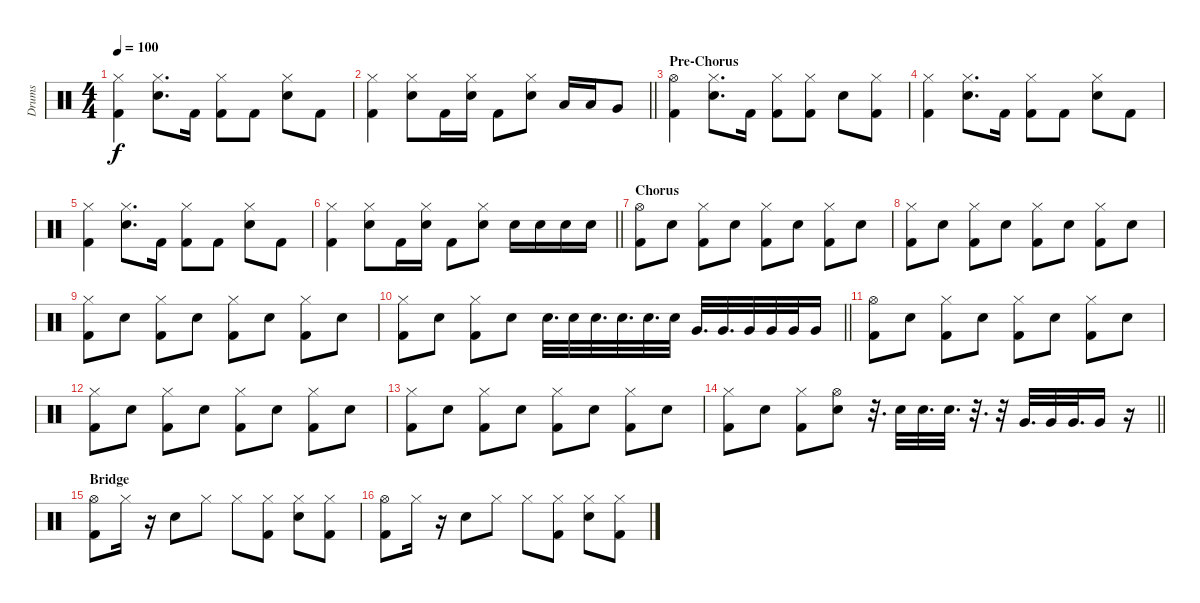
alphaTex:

\track ("Drums" "Drums") {instrument percussion}
\staff {score}
\articulation defaults
\ts (4 4)
\tempo 100
\clef neutral
\ks c
("Kick (hit) 2" "Hi-Hat (closed)").4{dy f} ("Electric Snare (hit)" "Hi-Hat (closed)").8{d} "Kick (hit) 2".16 ("Kick (hit) 2" "Hi-Hat (closed)").8 "Kick (hit) 2".8 ("Electric Snare (hit)" "Hi-Hat (closed)").8 "Kick (hit) 2".8 |
\barLineRight lightlight
("Kick (hit) 2" "Hi-Hat (closed)").4 ("Electric Snare (hit)" "Hi-Hat (closed)").8 "Kick (hit) 2".16 ("Electric Snare (hit)" "Hi-Hat (closed)").16 "Kick (hit) 2".8 ("Electric Snare (hit)" "Hi-Hat (closed)").8 "Low Tom (hit)".16 "Low Tom (hit)".16 "Very Low Tom (hit)".8 |
\section ("" "Pre-Chorus")
("Kick (hit) 2" "Hi-Hat (open)").4 ("Electric Snare (hit)" "Hi-Hat (closed)").8{d} "Kick (hit) 2".16 ("Kick (hit) 2" "Hi-Hat (closed)").8 ("Kick (hit) 2" "Hi-Hat (closed)").8 "Electric Snare (hit)".8 ("Kick (hit) 2" "Hi-Hat (closed)").8 |
("Kick (hit) 2" "Hi-Hat (closed)").4 ("Electric Snare (hit)" "Hi-Hat (closed)").8{d} "Kick (hit) 2".16 ("Kick (hit) 2" "Hi-Hat (closed)").8 "Kick (hit) 2".8 ("Electric Snare (hit)" "Hi-Hat (closed)").8 "Kick (hit) 2".8 |
("Kick (hit) 2" "Hi-Hat (closed)").4 ("Electric Snare (hit)" "Hi-Hat (closed)").8{d} "Kick (hit) 2".16 ("Kick (hit) 2" "Hi-Hat (closed)").8 "Kick (hit) 2".8 ("Electric Snare (hit)" "Hi-Hat (closed)").8 "Kick (hit) 2".8 |
\barLineRight lightlight
("Kick (hit) 2" "Hi-Hat (closed)").4 ("Electric Snare (hit)" "Hi-Hat (closed)").8 "Kick (hit) 2".16 ("Electric Snare (hit)" "Hi-Hat (closed)").16 "Kick (hit) 2".8 ("Electric Snare (hit)" "Hi-Hat (closed)").8 "Electric Snare (hit)".16 "Electric Snare (hit)".16 "Electric Snare (hit)".16 "Electric Snare (hit)".16 |
\section ("" "Chorus")
("Kick (hit) 2" "Hi-Hat (open)").8 "Electric Snare (hit)".8 ("Kick (hit) 2" "Hi-Hat (closed)").8 "Electric Snare (hit)".8 ("Kick (hit) 2" "Hi-Hat (closed)").8 "Electric Snare (hit)".8 ("Kick (hit) 2" "Hi-Hat (closed)").8 "Electric Snare (hit)".8 |
("Kick (hit) 2" "Hi-Hat (closed)").8 "Electric Snare (hit)".8 ("Kick (hit) 2" "Hi-Hat (closed)").8 "Electric Snare (hit)".8 ("Kick (hit) 2" "Hi-Hat (closed)").8 "Electric Snare (hit)".8 ("Kick (hit) 2" "Hi-Hat (closed)").8 "Electric Snare (hit)".8 |
("Kick (hit) 2" "Hi-Hat (closed)").8 "Electric Snare (hit)".8 ("Kick (hit) 2" "Hi-Hat (closed)").8 "Electric Snare (hit)".8 ("Kick (hit) 2" "Hi-Hat (closed)").8 "Electric Snare (hit)".8 ("Kick (hit) 2" "Hi-Hat (closed)").8 "Electric Snare (hit)".8 |
\barLineRight lightlight
("Kick (hit) 2" "Hi-Hat (closed)").8 "Electric Snare (hit)".8 ("Kick (hit) 2" "Hi-Hat (closed)").8 "Electric Snare (hit)".8 "Electric Snare (hit)".32{d} "Electric Snare (hit)".32 "Electric Snare (hit)".32{d} "Electric Snare (hit)".32{d} "Electric Snare (hit)".32{d} "Electric Snare (hit)".32 "Very Low Tom (hit)".32{d} "Very Low Tom (hit)".32{d} "Very Low Tom (hit)".32 "Very Low Tom (hit)".32 "Very Low Tom (hit)".32 "Very Low Tom (hit)".16 |
("Kick (hit) 2" "Hi-Hat (open)").8 "Electric Snare (hit)".8 ("Kick (hit) 2" "Hi-Hat (closed)").8 "Electric Snare (hit)".8 ("Kick (hit) 2" "Hi-Hat (closed)").8 "Electric Snare (hit)".8 ("Kick (hit) 2" "Hi-Hat (closed)").8 "Electric Snare (hit)".8 |
("Kick (hit) 2" "Hi-Hat (closed)").8 "Electric Snare (hit)".8 ("Kick (hit) 2" "Hi-Hat (closed)").8 "Electric Snare (hit)".8 ("Kick (hit) 2" "Hi-Hat (closed)").8 "Electric Snare (hit)".8 ("Kick (hit) 2" "Hi-Hat (closed)").8 "Electric Snare (hit)".8 |
("Kick (hit) 2" "Hi-Hat (closed)").8 "Electric Snare (hit)".8 ("Kick (hit) 2" "Hi-Hat (closed)").8 "Electric Snare (hit)".8 ("Kick (hit) 2" "Hi-Hat (closed)").8 "Electric Snare (hit)".8 ("Kick (hit) 2" "Hi-Hat (closed)").8 "Electric Snare (hit)".8 |
\barLineRight lightlight
("Kick (hit) 2" "Hi-Hat (closed)").8 "Electric Snare (hit)".8 ("Kick (hit) 2" "Hi-Hat (closed)").8 ("Electric Snare (hit)" "Hi-Hat (open)").8 r.32{d} "Electric Snare (hit)".32 "Electric Snare (hit)".32{d} "Electric Snare (hit)".32{d} r.32{d} r.32 "Very Low Tom (hit)".32{d} "Very Low Tom (hit)".32 "Very Low Tom (hit)".32{d} "Very Low Tom (hit)".16 r.16 |
\section ("" "Bridge")
("Kick (hit) 2" "Hi-Hat (open)").8 "Hi-Hat (closed)".16 r.16 "Electric Snare (hit)".8 "Hi-Hat (closed)".8 "Hi-Hat (closed)".8 ("Kick (hit) 2" "Hi-Hat (closed)").8 ("Electric Snare (hit)" "Hi-Hat (closed)").8 ("Kick (hit) 2" "Hi-Hat (closed)").8 |
("Kick (hit) 2" "Hi-Hat (open)").8 "Hi-Hat (closed)".16 r.16 "Electric Snare (hit)".8 "Hi-Hat (closed)".8 "Hi-Hat (closed)".8 ("Kick (hit) 2" "Hi-Hat (closed)").8 ("Electric Snare (hit)" "Hi-Hat (closed)").8 ("Kick (hit) 2" "Hi-Hat (closed)").8
